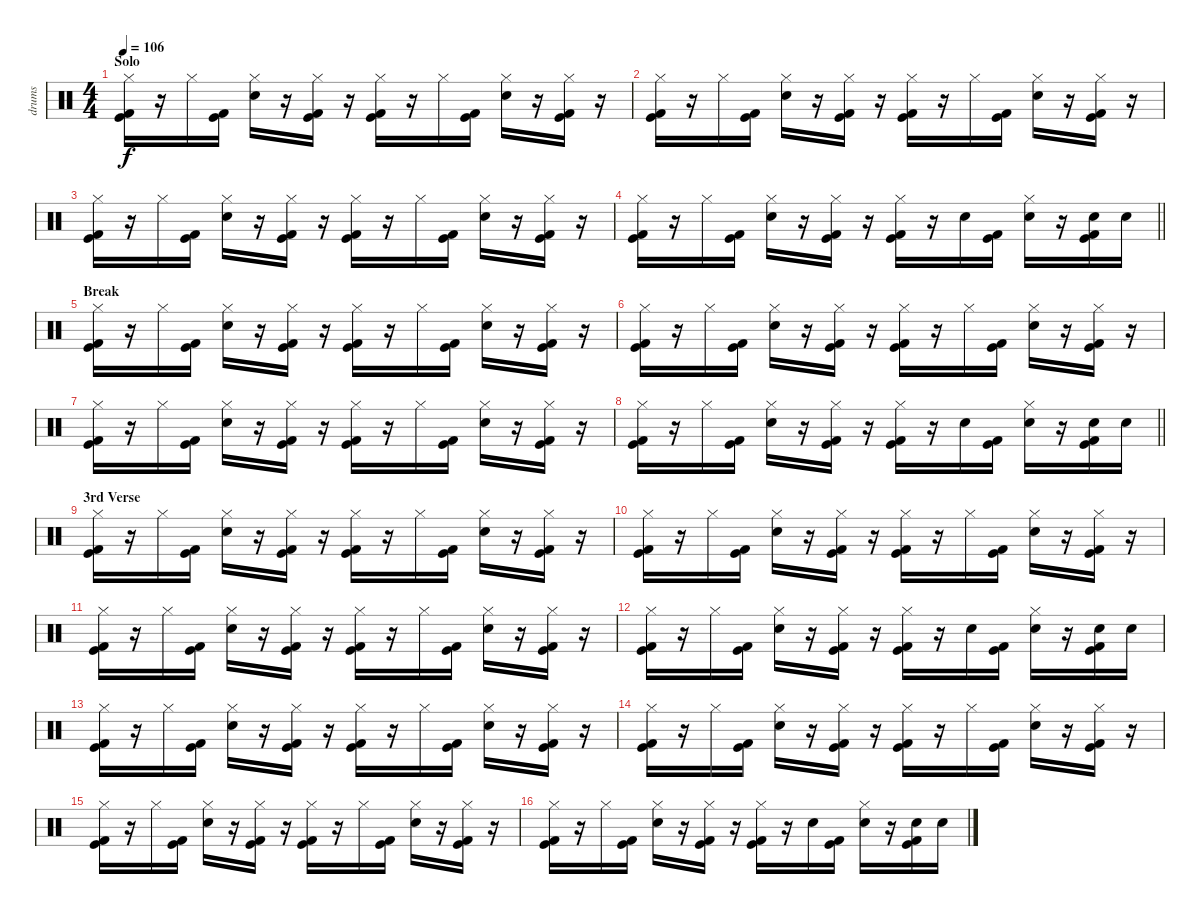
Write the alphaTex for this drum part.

\track ("drums" "drums") {instrument percussion}
\staff {score}
\articulation defaults
\ts (4 4)
\section ("" "Solo")
\tempo 106
\clef neutral
\ks c
("Hi-Hat (closed)" "Kick (hit) 2" "Kick (hit)").16{dy f} r.16 "Hi-Hat (closed)".16 ("Kick (hit) 2" "Kick (hit)").16 ("Hi-Hat (closed)" "Electric Snare (hit)").16 r.16 ("Hi-Hat (closed)" "Kick (hit) 2" "Kick (hit)").16 r.16 ("Hi-Hat (closed)" "Kick (hit) 2" "Kick (hit)").16 r.16 "Hi-Hat (closed)".16 ("Kick (hit) 2" "Kick (hit)").16 ("Hi-Hat (closed)" "Electric Snare (hit)").16 r.16 ("Hi-Hat (closed)" "Kick (hit) 2" "Kick (hit)").16 r.16 |
("Hi-Hat (closed)" "Kick (hit) 2" "Kick (hit)").16 r.16 "Hi-Hat (closed)".16 ("Kick (hit) 2" "Kick (hit)").16 ("Hi-Hat (closed)" "Electric Snare (hit)").16 r.16 ("Hi-Hat (closed)" "Kick (hit) 2" "Kick (hit)").16 r.16 ("Hi-Hat (closed)" "Kick (hit) 2" "Kick (hit)").16 r.16 "Hi-Hat (closed)".16 ("Kick (hit) 2" "Kick (hit)").16 ("Hi-Hat (closed)" "Electric Snare (hit)").16 r.16 ("Hi-Hat (closed)" "Kick (hit) 2" "Kick (hit)").16 r.16 |
("Hi-Hat (closed)" "Kick (hit) 2" "Kick (hit)").16 r.16 "Hi-Hat (closed)".16 ("Kick (hit) 2" "Kick (hit)").16 ("Hi-Hat (closed)" "Electric Snare (hit)").16 r.16 ("Hi-Hat (closed)" "Kick (hit) 2" "Kick (hit)").16 r.16 ("Hi-Hat (closed)" "Kick (hit) 2" "Kick (hit)").16 r.16 "Hi-Hat (closed)".16 ("Kick (hit) 2" "Kick (hit)").16 ("Hi-Hat (closed)" "Electric Snare (hit)").16 r.16 ("Hi-Hat (closed)" "Kick (hit) 2" "Kick (hit)").16 r.16 |
\barLineRight lightlight
("Hi-Hat (closed)" "Kick (hit) 2" "Kick (hit)").16 r.16 "Hi-Hat (closed)".16 ("Kick (hit) 2" "Kick (hit)").16 ("Hi-Hat (closed)" "Electric Snare (hit)").16 r.16 ("Hi-Hat (closed)" "Kick (hit) 2" "Kick (hit)").16 r.16 ("Hi-Hat (closed)" "Kick (hit) 2" "Kick (hit)").16 r.16 "Electric Snare (hit)".16 ("Kick (hit) 2" "Kick (hit)").16 ("Hi-Hat (closed)" "Electric Snare (hit)").16 r.16 ("Electric Snare (hit)" "Kick (hit) 2" "Kick (hit)").16 "Electric Snare (hit)".16 |
\section ("" "Break")
("Hi-Hat (closed)" "Kick (hit) 2" "Kick (hit)").16 r.16 "Hi-Hat (closed)".16 ("Kick (hit) 2" "Kick (hit)").16 ("Hi-Hat (closed)" "Electric Snare (hit)").16 r.16 ("Hi-Hat (closed)" "Kick (hit) 2" "Kick (hit)").16 r.16 ("Hi-Hat (closed)" "Kick (hit) 2" "Kick (hit)").16 r.16 "Hi-Hat (closed)".16 ("Kick (hit) 2" "Kick (hit)").16 ("Hi-Hat (closed)" "Electric Snare (hit)").16 r.16 ("Hi-Hat (closed)" "Kick (hit) 2" "Kick (hit)").16 r.16 |
("Hi-Hat (closed)" "Kick (hit) 2" "Kick (hit)").16 r.16 "Hi-Hat (closed)".16 ("Kick (hit) 2" "Kick (hit)").16 ("Hi-Hat (closed)" "Electric Snare (hit)").16 r.16 ("Hi-Hat (closed)" "Kick (hit) 2" "Kick (hit)").16 r.16 ("Hi-Hat (closed)" "Kick (hit) 2" "Kick (hit)").16 r.16 "Hi-Hat (closed)".16 ("Kick (hit) 2" "Kick (hit)").16 ("Hi-Hat (closed)" "Electric Snare (hit)").16 r.16 ("Hi-Hat (closed)" "Kick (hit) 2" "Kick (hit)").16 r.16 |
("Hi-Hat (closed)" "Kick (hit) 2" "Kick (hit)").16 r.16 "Hi-Hat (closed)".16 ("Kick (hit) 2" "Kick (hit)").16 ("Hi-Hat (closed)" "Electric Snare (hit)").16 r.16 ("Hi-Hat (closed)" "Kick (hit) 2" "Kick (hit)").16 r.16 ("Hi-Hat (closed)" "Kick (hit) 2" "Kick (hit)").16 r.16 "Hi-Hat (closed)".16 ("Kick (hit) 2" "Kick (hit)").16 ("Hi-Hat (closed)" "Electric Snare (hit)").16 r.16 ("Hi-Hat (closed)" "Kick (hit) 2" "Kick (hit)").16 r.16 |
\barLineRight lightlight
("Hi-Hat (closed)" "Kick (hit) 2" "Kick (hit)").16 r.16 "Hi-Hat (closed)".16 ("Kick (hit) 2" "Kick (hit)").16 ("Hi-Hat (closed)" "Electric Snare (hit)").16 r.16 ("Hi-Hat (closed)" "Kick (hit) 2" "Kick (hit)").16 r.16 ("Hi-Hat (closed)" "Kick (hit) 2" "Kick (hit)").16 r.16 "Electric Snare (hit)".16 ("Kick (hit) 2" "Kick (hit)").16 ("Hi-Hat (closed)" "Electric Snare (hit)").16 r.16 ("Electric Snare (hit)" "Kick (hit) 2" "Kick (hit)").16 "Electric Snare (hit)".16 |
\section ("" "3rd Verse")
("Hi-Hat (closed)" "Kick (hit) 2" "Kick (hit)").16 r.16 "Hi-Hat (closed)".16 ("Kick (hit) 2" "Kick (hit)").16 ("Hi-Hat (closed)" "Electric Snare (hit)").16 r.16 ("Hi-Hat (closed)" "Kick (hit) 2" "Kick (hit)").16 r.16 ("Hi-Hat (closed)" "Kick (hit) 2" "Kick (hit)").16 r.16 "Hi-Hat (closed)".16 ("Kick (hit) 2" "Kick (hit)").16 ("Hi-Hat (closed)" "Electric Snare (hit)").16 r.16 ("Hi-Hat (closed)" "Kick (hit) 2" "Kick (hit)").16 r.16 |
("Hi-Hat (closed)" "Kick (hit) 2" "Kick (hit)").16 r.16 "Hi-Hat (closed)".16 ("Kick (hit) 2" "Kick (hit)").16 ("Hi-Hat (closed)" "Electric Snare (hit)").16 r.16 ("Hi-Hat (closed)" "Kick (hit) 2" "Kick (hit)").16 r.16 ("Hi-Hat (closed)" "Kick (hit) 2" "Kick (hit)").16 r.16 "Hi-Hat (closed)".16 ("Kick (hit) 2" "Kick (hit)").16 ("Hi-Hat (closed)" "Electric Snare (hit)").16 r.16 ("Hi-Hat (closed)" "Kick (hit) 2" "Kick (hit)").16 r.16 |
("Hi-Hat (closed)" "Kick (hit) 2" "Kick (hit)").16 r.16 "Hi-Hat (closed)".16 ("Kick (hit) 2" "Kick (hit)").16 ("Hi-Hat (closed)" "Electric Snare (hit)").16 r.16 ("Hi-Hat (closed)" "Kick (hit) 2" "Kick (hit)").16 r.16 ("Hi-Hat (closed)" "Kick (hit) 2" "Kick (hit)").16 r.16 "Hi-Hat (closed)".16 ("Kick (hit) 2" "Kick (hit)").16 ("Hi-Hat (closed)" "Electric Snare (hit)").16 r.16 ("Hi-Hat (closed)" "Kick (hit) 2" "Kick (hit)").16 r.16 |
("Hi-Hat (closed)" "Kick (hit) 2" "Kick (hit)").16 r.16 "Hi-Hat (closed)".16 ("Kick (hit) 2" "Kick (hit)").16 ("Hi-Hat (closed)" "Electric Snare (hit)").16 r.16 ("Hi-Hat (closed)" "Kick (hit) 2" "Kick (hit)").16 r.16 ("Hi-Hat (closed)" "Kick (hit) 2" "Kick (hit)").16 r.16 "Electric Snare (hit)".16 ("Kick (hit) 2" "Kick (hit)").16 ("Hi-Hat (closed)" "Electric Snare (hit)").16 r.16 ("Electric Snare (hit)" "Kick (hit) 2" "Kick (hit)").16 "Electric Snare (hit)".16 |
("Hi-Hat (closed)" "Kick (hit) 2" "Kick (hit)").16 r.16 "Hi-Hat (closed)".16 ("Kick (hit) 2" "Kick (hit)").16 ("Hi-Hat (closed)" "Electric Snare (hit)").16 r.16 ("Hi-Hat (closed)" "Kick (hit) 2" "Kick (hit)").16 r.16 ("Hi-Hat (closed)" "Kick (hit) 2" "Kick (hit)").16 r.16 "Hi-Hat (closed)".16 ("Kick (hit) 2" "Kick (hit)").16 ("Hi-Hat (closed)" "Electric Snare (hit)").16 r.16 ("Hi-Hat (closed)" "Kick (hit) 2" "Kick (hit)").16 r.16 |
("Hi-Hat (closed)" "Kick (hit) 2" "Kick (hit)").16 r.16 "Hi-Hat (closed)".16 ("Kick (hit) 2" "Kick (hit)").16 ("Hi-Hat (closed)" "Electric Snare (hit)").16 r.16 ("Hi-Hat (closed)" "Kick (hit) 2" "Kick (hit)").16 r.16 ("Hi-Hat (closed)" "Kick (hit) 2" "Kick (hit)").16 r.16 "Hi-Hat (closed)".16 ("Kick (hit) 2" "Kick (hit)").16 ("Hi-Hat (closed)" "Electric Snare (hit)").16 r.16 ("Hi-Hat (closed)" "Kick (hit) 2" "Kick (hit)").16 r.16 |
("Hi-Hat (closed)" "Kick (hit) 2" "Kick (hit)").16 r.16 "Hi-Hat (closed)".16 ("Kick (hit) 2" "Kick (hit)").16 ("Hi-Hat (closed)" "Electric Snare (hit)").16 r.16 ("Hi-Hat (closed)" "Kick (hit) 2" "Kick (hit)").16 r.16 ("Hi-Hat (closed)" "Kick (hit) 2" "Kick (hit)").16 r.16 "Hi-Hat (closed)".16 ("Kick (hit) 2" "Kick (hit)").16 ("Hi-Hat (closed)" "Electric Snare (hit)").16 r.16 ("Hi-Hat (closed)" "Kick (hit) 2" "Kick (hit)").16 r.16 |
("Hi-Hat (closed)" "Kick (hit) 2" "Kick (hit)").16 r.16 "Hi-Hat (closed)".16 ("Kick (hit) 2" "Kick (hit)").16 ("Hi-Hat (closed)" "Electric Snare (hit)").16 r.16 ("Hi-Hat (closed)" "Kick (hit) 2" "Kick (hit)").16 r.16 ("Hi-Hat (closed)" "Kick (hit) 2" "Kick (hit)").16 r.16 "Electric Snare (hit)".16 ("Kick (hit) 2" "Kick (hit)").16 ("Hi-Hat (closed)" "Electric Snare (hit)").16 r.16 ("Electric Snare (hit)" "Kick (hit) 2" "Kick (hit)").16 "Electric Snare (hit)".16
